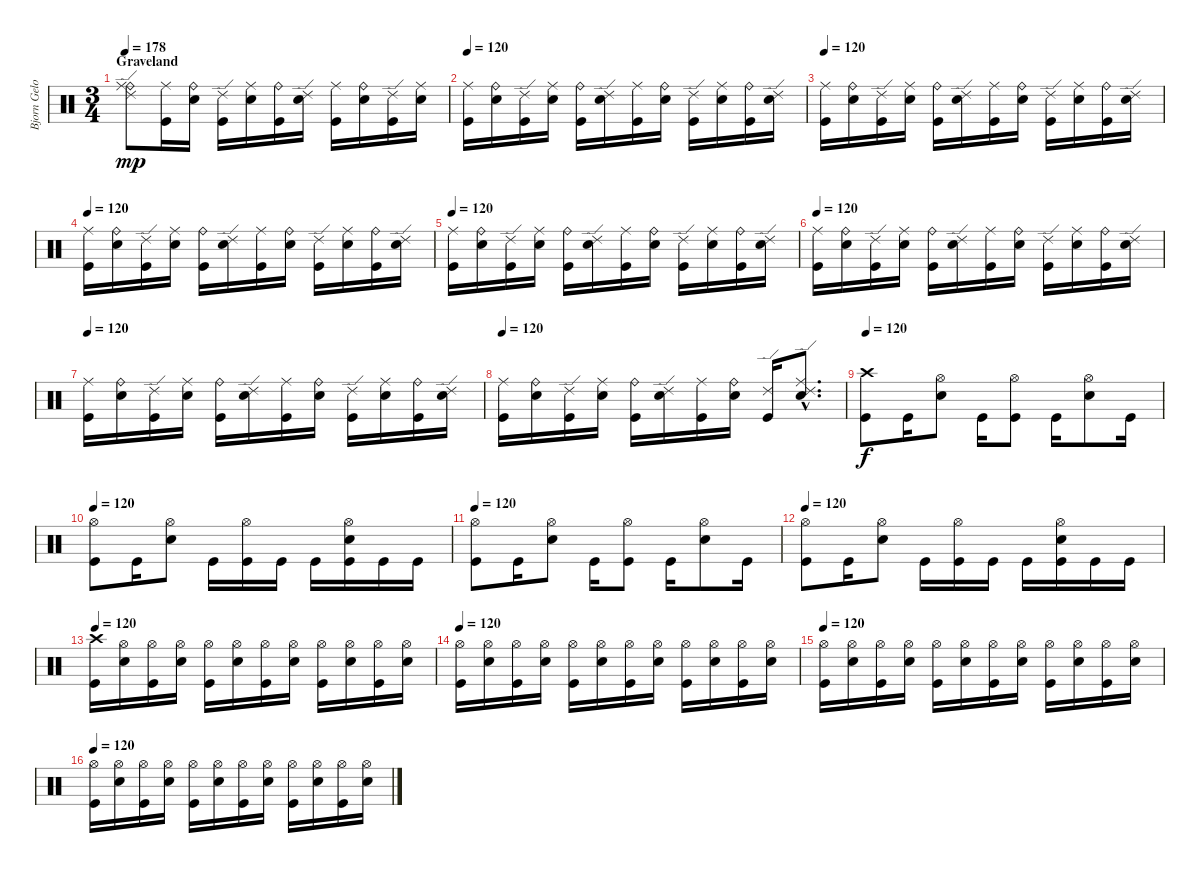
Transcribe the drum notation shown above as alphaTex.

\track ("Bjorn Gelotte-Drum" "Bjorn Gelo") {instrument percussion}
\staff {score}
\articulation defaults
\ts (3 4)
\section ("" "Graveland")
\tempo 178
\tempo 120
\tempo 178
\clef neutral
\ks c
("Ride (edge) 2" "Ride (bell)" "Ride (middle)").8{dy mp} ("Ride (middle)" "Kick (hit)").16 ("Ride (bell)" "Electric Snare (hit)").16 ("Ride (edge) 2" "Kick (hit)").16 ("Ride (middle)" "Electric Snare (hit)").16 ("Ride (bell)" "Kick (hit)").16 ("Ride (edge) 2" "Electric Snare (hit)").16 ("Ride (middle)" "Kick (hit)").16 ("Ride (bell)" "Electric Snare (hit)").16 ("Ride (edge) 2" "Kick (hit)").16 ("Ride (middle)" "Electric Snare (hit)").16 |
\tempo 120
("Ride (middle)" "Kick (hit)").16 ("Ride (bell)" "Electric Snare (hit)").16 ("Ride (edge) 2" "Kick (hit)").16 ("Ride (middle)" "Electric Snare (hit)").16 ("Ride (bell)" "Kick (hit)").16 ("Ride (edge) 2" "Electric Snare (hit)").16 ("Ride (middle)" "Kick (hit)").16 ("Ride (bell)" "Electric Snare (hit)").16 ("Ride (edge) 2" "Kick (hit)").16 ("Ride (middle)" "Electric Snare (hit)").16 ("Ride (bell)" "Kick (hit)").16 ("Ride (edge) 2" "Electric Snare (hit)").16 |
\tempo 120
("Ride (middle)" "Kick (hit)").16 ("Ride (bell)" "Electric Snare (hit)").16 ("Ride (edge) 2" "Kick (hit)").16 ("Ride (middle)" "Electric Snare (hit)").16 ("Ride (bell)" "Kick (hit)").16 ("Ride (edge) 2" "Electric Snare (hit)").16 ("Ride (middle)" "Kick (hit)").16 ("Ride (bell)" "Electric Snare (hit)").16 ("Ride (edge) 2" "Kick (hit)").16 ("Ride (middle)" "Electric Snare (hit)").16 ("Ride (bell)" "Kick (hit)").16 ("Ride (edge) 2" "Electric Snare (hit)").16 |
\tempo 120
("Ride (middle)" "Kick (hit)").16 ("Ride (bell)" "Electric Snare (hit)").16 ("Ride (edge) 2" "Kick (hit)").16 ("Ride (middle)" "Electric Snare (hit)").16 ("Ride (bell)" "Kick (hit)").16 ("Ride (edge) 2" "Electric Snare (hit)").16 ("Ride (middle)" "Kick (hit)").16 ("Ride (bell)" "Electric Snare (hit)").16 ("Ride (edge) 2" "Kick (hit)").16 ("Ride (middle)" "Electric Snare (hit)").16 ("Ride (bell)" "Kick (hit)").16 ("Ride (edge) 2" "Electric Snare (hit)").16 |
\tempo 120
("Ride (middle)" "Kick (hit)").16 ("Ride (bell)" "Electric Snare (hit)").16 ("Ride (edge) 2" "Kick (hit)").16 ("Ride (middle)" "Electric Snare (hit)").16 ("Ride (bell)" "Kick (hit)").16 ("Ride (edge) 2" "Electric Snare (hit)").16 ("Ride (middle)" "Kick (hit)").16 ("Ride (bell)" "Electric Snare (hit)").16 ("Ride (edge) 2" "Kick (hit)").16 ("Ride (middle)" "Electric Snare (hit)").16 ("Ride (bell)" "Kick (hit)").16 ("Ride (edge) 2" "Electric Snare (hit)").16 |
\tempo 120
("Ride (middle)" "Kick (hit)").16 ("Ride (bell)" "Electric Snare (hit)").16 ("Ride (edge) 2" "Kick (hit)").16 ("Ride (middle)" "Electric Snare (hit)").16 ("Ride (bell)" "Kick (hit)").16 ("Ride (edge) 2" "Electric Snare (hit)").16 ("Ride (middle)" "Kick (hit)").16 ("Ride (bell)" "Electric Snare (hit)").16 ("Ride (edge) 2" "Kick (hit)").16 ("Ride (middle)" "Electric Snare (hit)").16 ("Ride (bell)" "Kick (hit)").16 ("Ride (edge) 2" "Electric Snare (hit)").16 |
\tempo 120
("Ride (middle)" "Kick (hit)").16 ("Ride (bell)" "Electric Snare (hit)").16 ("Ride (edge) 2" "Kick (hit)").16 ("Ride (middle)" "Electric Snare (hit)").16 ("Ride (bell)" "Kick (hit)").16 ("Ride (edge) 2" "Electric Snare (hit)").16 ("Ride (middle)" "Kick (hit)").16 ("Ride (bell)" "Electric Snare (hit)").16 ("Ride (edge) 2" "Kick (hit)").16 ("Ride (middle)" "Electric Snare (hit)").16 ("Ride (bell)" "Kick (hit)").16 ("Ride (edge) 2" "Electric Snare (hit)").16 |
\tempo 120
("Ride (middle)" "Kick (hit)").16 ("Ride (bell)" "Electric Snare (hit)").16 ("Ride (edge) 2" "Kick (hit)").16 ("Ride (middle)" "Electric Snare (hit)").16 ("Ride (bell)" "Kick (hit)").16 ("Ride (edge) 2" "Electric Snare (hit)").16 ("Ride (middle)" "Kick (hit)").16 ("Ride (bell)" "Electric Snare (hit)").16 ("Ride (edge) 2" "Kick (hit)").16 ("Ride (middle)"{hac} "Ride (edge) 2"{hac} "Electric Snare (hit)"{hac}).8{d} |
\tempo 120
("Crash high (hit)" "Kick (hit)").8{dy f} "Kick (hit)".16 ("Hi-Hat (open)" "Electric Snare (hit)").8 "Kick (hit)".16 ("Hi-Hat (open)" "Kick (hit)").8 "Kick (hit)".16 ("Hi-Hat (open)" "Electric Snare (hit)").8 "Kick (hit)".16 |
\tempo 120
("Hi-Hat (open)" "Kick (hit)").8 "Kick (hit)".16 ("Hi-Hat (open)" "Electric Snare (hit)").8 "Kick (hit)".16 ("Hi-Hat (open)" "Kick (hit)").16 "Kick (hit)".16 "Kick (hit)".16 ("Hi-Hat (open)" "Electric Snare (hit)" "Kick (hit)").16 "Kick (hit)".16 "Kick (hit)".16 |
\tempo 120
("Hi-Hat (open)" "Kick (hit)").8 "Kick (hit)".16 ("Hi-Hat (open)" "Electric Snare (hit)").8 "Kick (hit)".16 ("Hi-Hat (open)" "Kick (hit)").8 "Kick (hit)".16 ("Hi-Hat (open)" "Electric Snare (hit)").8 "Kick (hit)".16 |
\tempo 120
("Hi-Hat (open)" "Kick (hit)").8 "Kick (hit)".16 ("Hi-Hat (open)" "Electric Snare (hit)").8 "Kick (hit)".16 ("Hi-Hat (open)" "Kick (hit)").16 "Kick (hit)".16 "Kick (hit)".16 ("Hi-Hat (open)" "Electric Snare (hit)" "Kick (hit)").16 "Kick (hit)".16 "Kick (hit)".16 |
\tempo 120
("Crash high (hit)" "Kick (hit)").16 ("Hi-Hat (open)" "Electric Snare (hit)").16 ("Hi-Hat (open)" "Kick (hit)").16 ("Hi-Hat (open)" "Electric Snare (hit)").16 ("Hi-Hat (open)" "Kick (hit)").16 ("Hi-Hat (open)" "Electric Snare (hit)").16 ("Hi-Hat (open)" "Kick (hit)").16 ("Hi-Hat (open)" "Electric Snare (hit)").16 ("Hi-Hat (open)" "Kick (hit)").16 ("Hi-Hat (open)" "Electric Snare (hit)").16 ("Hi-Hat (open)" "Kick (hit)").16 ("Hi-Hat (open)" "Electric Snare (hit)").16 |
\tempo 120
("Hi-Hat (open)" "Kick (hit)").16 ("Hi-Hat (open)" "Electric Snare (hit)").16 ("Hi-Hat (open)" "Kick (hit)").16 ("Hi-Hat (open)" "Electric Snare (hit)").16 ("Hi-Hat (open)" "Kick (hit)").16 ("Hi-Hat (open)" "Electric Snare (hit)").16 ("Hi-Hat (open)" "Kick (hit)").16 ("Hi-Hat (open)" "Electric Snare (hit)").16 ("Hi-Hat (open)" "Kick (hit)").16 ("Hi-Hat (open)" "Electric Snare (hit)").16 ("Hi-Hat (open)" "Kick (hit)").16 ("Hi-Hat (open)" "Electric Snare (hit)").16 |
\tempo 120
("Hi-Hat (open)" "Kick (hit)").16 ("Hi-Hat (open)" "Electric Snare (hit)").16 ("Hi-Hat (open)" "Kick (hit)").16 ("Hi-Hat (open)" "Electric Snare (hit)").16 ("Hi-Hat (open)" "Kick (hit)").16 ("Hi-Hat (open)" "Electric Snare (hit)").16 ("Hi-Hat (open)" "Kick (hit)").16 ("Hi-Hat (open)" "Electric Snare (hit)").16 ("Hi-Hat (open)" "Kick (hit)").16 ("Hi-Hat (open)" "Electric Snare (hit)").16 ("Hi-Hat (open)" "Kick (hit)").16 ("Hi-Hat (open)" "Electric Snare (hit)").16 |
\tempo 120
("Hi-Hat (open)" "Kick (hit)").16 ("Hi-Hat (open)" "Electric Snare (hit)").16 ("Hi-Hat (open)" "Kick (hit)").16 ("Hi-Hat (open)" "Electric Snare (hit)").16 ("Hi-Hat (open)" "Kick (hit)").16 ("Hi-Hat (open)" "Electric Snare (hit)").16 ("Hi-Hat (open)" "Kick (hit)").16 ("Hi-Hat (open)" "Electric Snare (hit)").16 ("Hi-Hat (open)" "Kick (hit)").16 ("Hi-Hat (open)" "Electric Snare (hit)").16 ("Hi-Hat (open)" "Kick (hit)").16 ("Hi-Hat (open)" "Electric Snare (hit)").16
